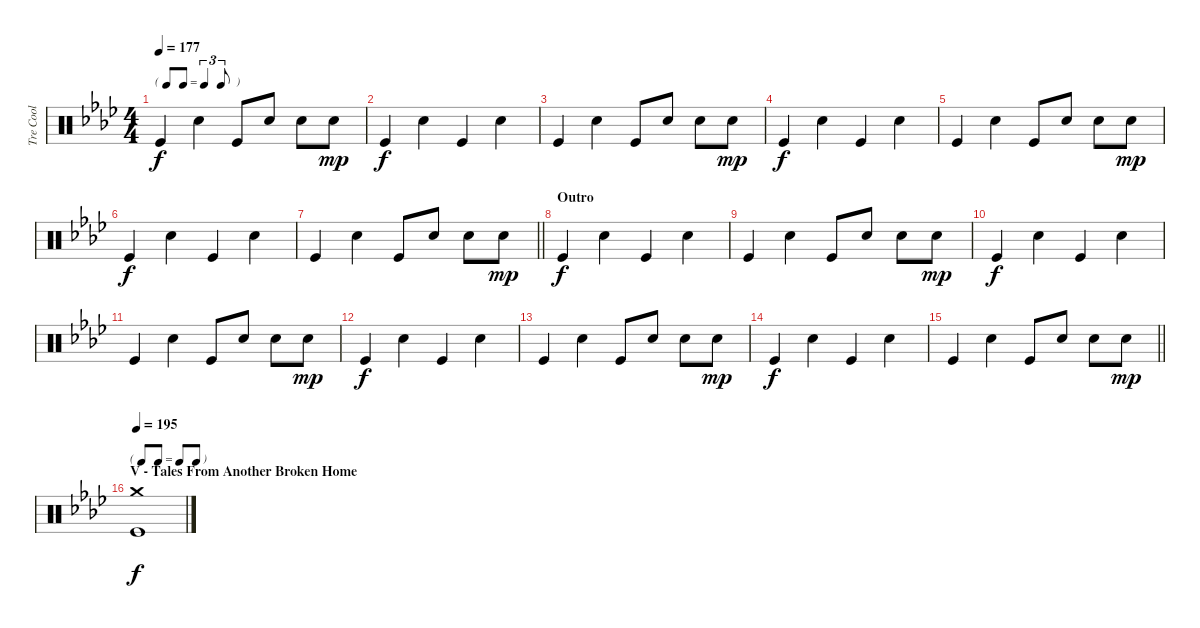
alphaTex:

\track ("Tre Cool" "Tre Cool") {instrument percussion}
\staff {score}
\articulation defaults
\ts (4 4)
\tf triplet8th
\tempo 177
\clef neutral
\ks ab "Kick (hit)".4{dy f} "Electric Snare (hit)".4 "Kick (hit)".8 "Electric Snare (hit)".8 "Electric Snare (hit)".8 "Electric Snare (hit)".8{dy mp}
|
"Kick (hit)".4{dy f} "Electric Snare (hit)".4 "Kick (hit)".4 "Electric Snare (hit)".4 |
"Kick (hit)".4 "Electric Snare (hit)".4 "Kick (hit)".8 "Electric Snare (hit)".8 "Electric Snare (hit)".8 "Electric Snare (hit)".8{dy mp} |
"Kick (hit)".4{dy f} "Electric Snare (hit)".4 "Kick (hit)".4 "Electric Snare (hit)".4 |
"Kick (hit)".4 "Electric Snare (hit)".4 "Kick (hit)".8 "Electric Snare (hit)".8 "Electric Snare (hit)".8 "Electric Snare (hit)".8{dy mp} |
"Kick (hit)".4{dy f} "Electric Snare (hit)".4 "Kick (hit)".4 "Electric Snare (hit)".4 |
\barLineRight lightlight "Kick (hit)".4 "Electric Snare (hit)".4 "Kick (hit)".8 "Electric Snare (hit)".8 "Electric Snare (hit)".8 "Electric Snare (hit)".8{dy mp}
|
\section ("" "Outro")
"Kick (hit)".4{dy f} "Electric Snare (hit)".4 "Kick (hit)".4 "Electric Snare (hit)".4 |
"Kick (hit)".4 "Electric Snare (hit)".4 "Kick (hit)".8 "Electric Snare (hit)".8 "Electric Snare (hit)".8 "Electric Snare (hit)".8{dy mp} |
"Kick (hit)".4{dy f} "Electric Snare (hit)".4 "Kick (hit)".4 "Electric Snare (hit)".4 |
"Kick (hit)".4 "Electric Snare (hit)".4 "Kick (hit)".8 "Electric Snare (hit)".8 "Electric Snare (hit)".8 "Electric Snare (hit)".8{dy mp} |
"Kick (hit)".4{dy f} "Electric Snare (hit)".4 "Kick (hit)".4 "Electric Snare (hit)".4 |
"Kick (hit)".4 "Electric Snare (hit)".4 "Kick (hit)".8 "Electric Snare (hit)".8 "Electric Snare (hit)".8 "Electric Snare (hit)".8{dy mp} |
"Kick (hit)".4{dy f} "Electric Snare (hit)".4 "Kick (hit)".4 "Electric Snare (hit)".4 |
\barLineRight lightlight "Kick (hit)".4 "Electric Snare (hit)".4 "Kick (hit)".8 "Electric Snare (hit)".8 "Electric Snare (hit)".8 "Electric Snare (hit)".8{dy mp}
|
\tf none
\section ("" "V - Tales From Another Broken Home")
\tempo 195
("Crash medium (hit)" "Kick (hit)").1{dy f}
